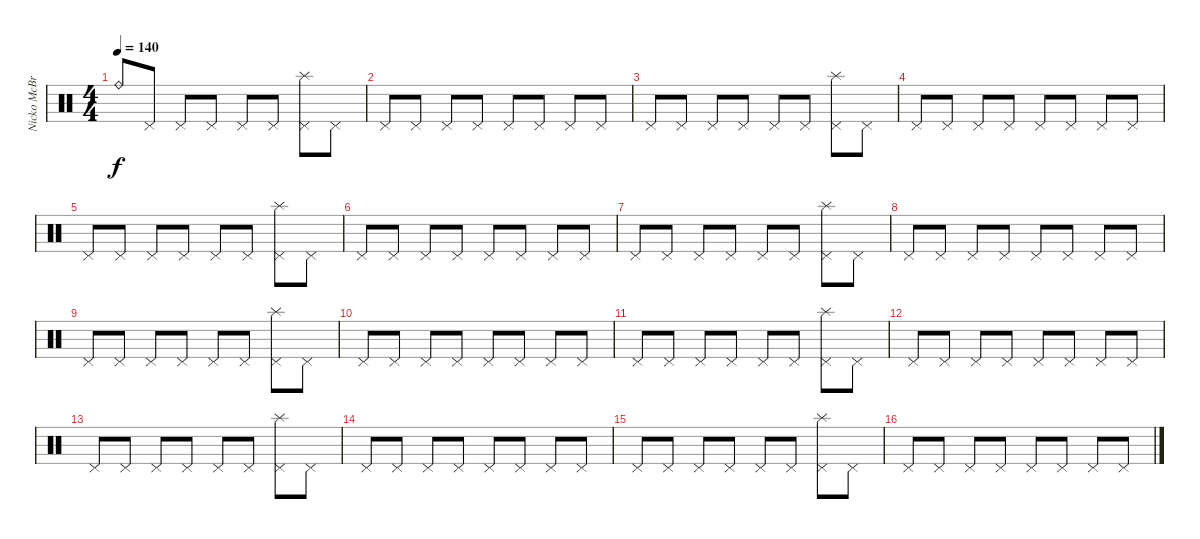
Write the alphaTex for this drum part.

\track ("Nicko McBrian (Drums)" "Nicko McBr") {instrument percussion}
\staff {score}
\articulation defaults
\ts (4 4)
\tempo 140
\clef neutral
\ks c "Ride (bell)".8{dy f} "Pedal Hi-Hat (hit)".8 "Pedal Hi-Hat (hit)".8 "Pedal Hi-Hat (hit)".8 "Pedal Hi-Hat (hit)".8 "Pedal Hi-Hat (hit)".8
("Splash (hit)" "Pedal Hi-Hat (hit)").8 "Pedal Hi-Hat (hit)".8 |
"Pedal Hi-Hat (hit)".8 "Pedal Hi-Hat (hit)".8 "Pedal Hi-Hat (hit)".8 "Pedal Hi-Hat (hit)".8 "Pedal Hi-Hat (hit)".8 "Pedal Hi-Hat (hit)".8 "Pedal Hi-Hat (hit)".8 "Pedal Hi-Hat (hit)".8 |
"Pedal Hi-Hat (hit)".8 "Pedal Hi-Hat (hit)".8 "Pedal Hi-Hat (hit)".8 "Pedal Hi-Hat (hit)".8 "Pedal Hi-Hat (hit)".8 "Pedal Hi-Hat (hit)".8 ("Splash (hit)" "Pedal Hi-Hat (hit)").8 "Pedal Hi-Hat (hit)".8 |
"Pedal Hi-Hat (hit)".8 "Pedal Hi-Hat (hit)".8 "Pedal Hi-Hat (hit)".8 "Pedal Hi-Hat (hit)".8 "Pedal Hi-Hat (hit)".8 "Pedal Hi-Hat (hit)".8 "Pedal Hi-Hat (hit)".8 "Pedal Hi-Hat (hit)".8 |
"Pedal Hi-Hat (hit)".8 "Pedal Hi-Hat (hit)".8 "Pedal Hi-Hat (hit)".8 "Pedal Hi-Hat (hit)".8 "Pedal Hi-Hat (hit)".8 "Pedal Hi-Hat (hit)".8 ("Splash (hit)" "Pedal Hi-Hat (hit)").8 "Pedal Hi-Hat (hit)".8 |
"Pedal Hi-Hat (hit)".8 "Pedal Hi-Hat (hit)".8 "Pedal Hi-Hat (hit)".8 "Pedal Hi-Hat (hit)".8 "Pedal Hi-Hat (hit)".8 "Pedal Hi-Hat (hit)".8 "Pedal Hi-Hat (hit)".8 "Pedal Hi-Hat (hit)".8 |
"Pedal Hi-Hat (hit)".8 "Pedal Hi-Hat (hit)".8 "Pedal Hi-Hat (hit)".8 "Pedal Hi-Hat (hit)".8 "Pedal Hi-Hat (hit)".8 "Pedal Hi-Hat (hit)".8 ("Splash (hit)" "Pedal Hi-Hat (hit)").8 "Pedal Hi-Hat (hit)".8 |
"Pedal Hi-Hat (hit)".8 "Pedal Hi-Hat (hit)".8 "Pedal Hi-Hat (hit)".8 "Pedal Hi-Hat (hit)".8 "Pedal Hi-Hat (hit)".8 "Pedal Hi-Hat (hit)".8 "Pedal Hi-Hat (hit)".8 "Pedal Hi-Hat (hit)".8 |
"Pedal Hi-Hat (hit)".8 "Pedal Hi-Hat (hit)".8 "Pedal Hi-Hat (hit)".8 "Pedal Hi-Hat (hit)".8 "Pedal Hi-Hat (hit)".8 "Pedal Hi-Hat (hit)".8 ("Splash (hit)" "Pedal Hi-Hat (hit)").8 "Pedal Hi-Hat (hit)".8 |
"Pedal Hi-Hat (hit)".8 "Pedal Hi-Hat (hit)".8 "Pedal Hi-Hat (hit)".8 "Pedal Hi-Hat (hit)".8 "Pedal Hi-Hat (hit)".8 "Pedal Hi-Hat (hit)".8 "Pedal Hi-Hat (hit)".8 "Pedal Hi-Hat (hit)".8 |
"Pedal Hi-Hat (hit)".8 "Pedal Hi-Hat (hit)".8 "Pedal Hi-Hat (hit)".8 "Pedal Hi-Hat (hit)".8 "Pedal Hi-Hat (hit)".8 "Pedal Hi-Hat (hit)".8 ("Splash (hit)" "Pedal Hi-Hat (hit)").8 "Pedal Hi-Hat (hit)".8 |
"Pedal Hi-Hat (hit)".8 "Pedal Hi-Hat (hit)".8 "Pedal Hi-Hat (hit)".8 "Pedal Hi-Hat (hit)".8 "Pedal Hi-Hat (hit)".8 "Pedal Hi-Hat (hit)".8 "Pedal Hi-Hat (hit)".8 "Pedal Hi-Hat (hit)".8 |
"Pedal Hi-Hat (hit)".8 "Pedal Hi-Hat (hit)".8 "Pedal Hi-Hat (hit)".8 "Pedal Hi-Hat (hit)".8 "Pedal Hi-Hat (hit)".8 "Pedal Hi-Hat (hit)".8 ("Splash (hit)" "Pedal Hi-Hat (hit)").8 "Pedal Hi-Hat (hit)".8 |
"Pedal Hi-Hat (hit)".8 "Pedal Hi-Hat (hit)".8 "Pedal Hi-Hat (hit)".8 "Pedal Hi-Hat (hit)".8 "Pedal Hi-Hat (hit)".8 "Pedal Hi-Hat (hit)".8 "Pedal Hi-Hat (hit)".8 "Pedal Hi-Hat (hit)".8 |
"Pedal Hi-Hat (hit)".8 "Pedal Hi-Hat (hit)".8 "Pedal Hi-Hat (hit)".8 "Pedal Hi-Hat (hit)".8 "Pedal Hi-Hat (hit)".8 "Pedal Hi-Hat (hit)".8 ("Splash (hit)" "Pedal Hi-Hat (hit)").8 "Pedal Hi-Hat (hit)".8 |
"Pedal Hi-Hat (hit)".8 "Pedal Hi-Hat (hit)".8 "Pedal Hi-Hat (hit)".8 "Pedal Hi-Hat (hit)".8 "Pedal Hi-Hat (hit)".8 "Pedal Hi-Hat (hit)".8 "Pedal Hi-Hat (hit)".8 "Pedal Hi-Hat (hit)".8
